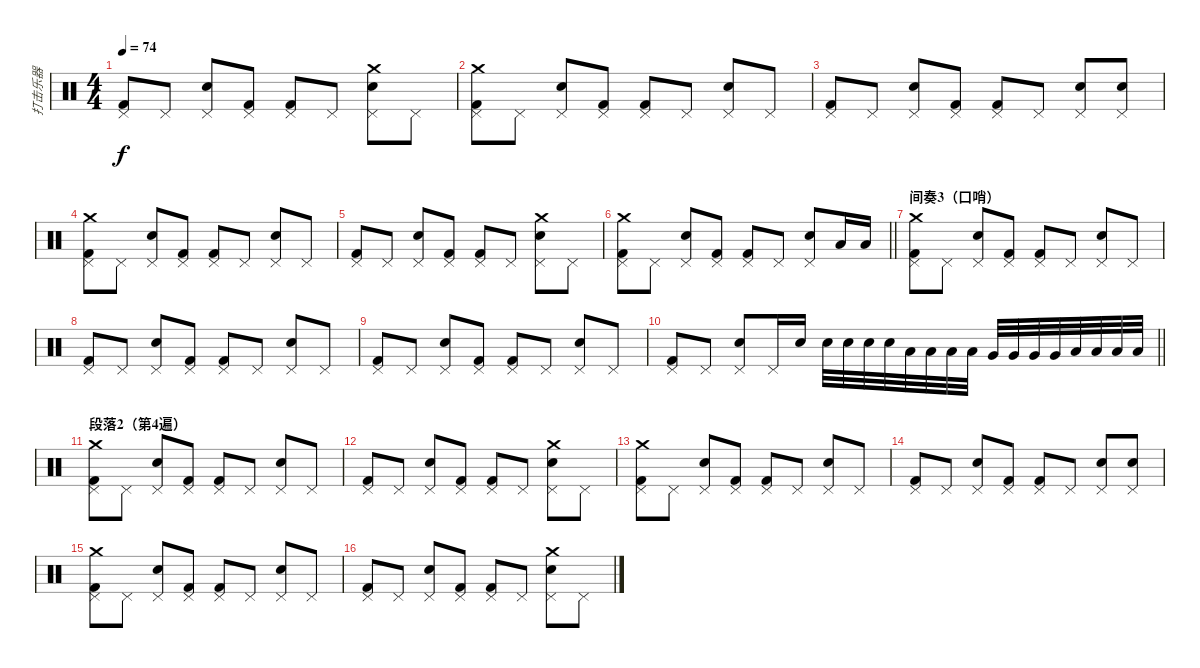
\track ("打击乐器" "打击乐器") {instrument percussion}
\staff {score}
\articulation defaults
\ts (4 4)
\tempo 74
\clef neutral
\ks c
("Pedal Hi-Hat (hit)" "Kick (hit) 2").8{dy f} "Pedal Hi-Hat (hit)".8 ("Pedal Hi-Hat (hit)" "Electric Snare (hit)").8 ("Pedal Hi-Hat (hit)" "Kick (hit) 2").8 ("Pedal Hi-Hat (hit)" "Kick (hit) 2").8 "Pedal Hi-Hat (hit)".8 ("Pedal Hi-Hat (hit)" "Electric Snare (hit)" "Crash medium (hit)").8 "Pedal Hi-Hat (hit)".8 |
("Pedal Hi-Hat (hit)" "Kick (hit) 2" "Crash medium (hit)").8 "Pedal Hi-Hat (hit)".8 ("Pedal Hi-Hat (hit)" "Electric Snare (hit)").8 ("Pedal Hi-Hat (hit)" "Kick (hit) 2").8 ("Pedal Hi-Hat (hit)" "Kick (hit) 2").8 "Pedal Hi-Hat (hit)".8 ("Pedal Hi-Hat (hit)" "Electric Snare (hit)").8 "Pedal Hi-Hat (hit)".8 |
("Pedal Hi-Hat (hit)" "Kick (hit) 2").8 "Pedal Hi-Hat (hit)".8 ("Pedal Hi-Hat (hit)" "Electric Snare (hit)").8 ("Pedal Hi-Hat (hit)" "Kick (hit) 2").8 ("Pedal Hi-Hat (hit)" "Kick (hit) 2").8 "Pedal Hi-Hat (hit)".8 ("Pedal Hi-Hat (hit)" "Electric Snare (hit)").8 ("Pedal Hi-Hat (hit)" "Electric Snare (hit)").8 |
("Pedal Hi-Hat (hit)" "Kick (hit) 2" "Crash medium (hit)").8 "Pedal Hi-Hat (hit)".8 ("Pedal Hi-Hat (hit)" "Electric Snare (hit)").8 ("Pedal Hi-Hat (hit)" "Kick (hit) 2").8 ("Pedal Hi-Hat (hit)" "Kick (hit) 2").8 "Pedal Hi-Hat (hit)".8 ("Pedal Hi-Hat (hit)" "Electric Snare (hit)").8 "Pedal Hi-Hat (hit)".8 |
("Pedal Hi-Hat (hit)" "Kick (hit) 2").8 "Pedal Hi-Hat (hit)".8 ("Pedal Hi-Hat (hit)" "Electric Snare (hit)").8 ("Pedal Hi-Hat (hit)" "Kick (hit) 2").8 ("Pedal Hi-Hat (hit)" "Kick (hit) 2").8 "Pedal Hi-Hat (hit)".8 ("Pedal Hi-Hat (hit)" "Electric Snare (hit)" "Crash medium (hit)").8 "Pedal Hi-Hat (hit)".8 |
\barLineRight lightlight
("Pedal Hi-Hat (hit)" "Kick (hit) 2" "Crash medium (hit)").8 "Pedal Hi-Hat (hit)".8 ("Pedal Hi-Hat (hit)" "Electric Snare (hit)").8 ("Pedal Hi-Hat (hit)" "Kick (hit) 2").8 ("Pedal Hi-Hat (hit)" "Kick (hit) 2").8 "Pedal Hi-Hat (hit)".8 ("Pedal Hi-Hat (hit)" "Electric Snare (hit)").8 "Low Tom (hit)".16 "Low Tom (hit)".16 |
\section ("" "间奏3（口哨）")
("Pedal Hi-Hat (hit)" "Kick (hit) 2" "Crash medium (hit)").8 "Pedal Hi-Hat (hit)".8 ("Pedal Hi-Hat (hit)" "Electric Snare (hit)").8 ("Pedal Hi-Hat (hit)" "Kick (hit) 2").8 ("Pedal Hi-Hat (hit)" "Kick (hit) 2").8 "Pedal Hi-Hat (hit)".8 ("Pedal Hi-Hat (hit)" "Electric Snare (hit)").8 "Pedal Hi-Hat (hit)".8 |
("Pedal Hi-Hat (hit)" "Kick (hit) 2").8 "Pedal Hi-Hat (hit)".8 ("Pedal Hi-Hat (hit)" "Electric Snare (hit)").8 ("Pedal Hi-Hat (hit)" "Kick (hit) 2").8 ("Pedal Hi-Hat (hit)" "Kick (hit) 2").8 "Pedal Hi-Hat (hit)".8 ("Pedal Hi-Hat (hit)" "Electric Snare (hit)").8 "Pedal Hi-Hat (hit)".8 |
("Pedal Hi-Hat (hit)" "Kick (hit) 2").8 "Pedal Hi-Hat (hit)".8 ("Pedal Hi-Hat (hit)" "Electric Snare (hit)").8 ("Pedal Hi-Hat (hit)" "Kick (hit) 2").8 ("Pedal Hi-Hat (hit)" "Kick (hit) 2").8 "Pedal Hi-Hat (hit)".8 ("Pedal Hi-Hat (hit)" "Electric Snare (hit)").8 "Pedal Hi-Hat (hit)".8 |
\barLineRight lightlight
("Pedal Hi-Hat (hit)" "Kick (hit) 2").8 "Pedal Hi-Hat (hit)".8 ("Pedal Hi-Hat (hit)" "Electric Snare (hit)").8{balance 16} "Pedal Hi-Hat (hit)".16 "Electric Snare (hit)".16 "Electric Snare (hit)".32{balance 1} "Electric Snare (hit)".32 "Electric Snare (hit)".32 "Electric Snare (hit)".32 "Low Floor Tom (hit)".32 "Low Floor Tom (hit)".32 "Low Floor Tom (hit)".32 "Low Floor Tom (hit)".32 "Very Low Tom (hit)".32 "Very Low Tom (hit)".32 "Very Low Tom (hit)".32 "Very Low Tom (hit)".32 "Low Tom (hit)".32 "Low Tom (hit)".32 "Low Tom (hit)".32 "Low Tom (hit)".32 |
\section ("" "段落2（第4遍）")
("Pedal Hi-Hat (hit)" "Kick (hit) 2" "Crash medium (hit)").8{balance 8} "Pedal Hi-Hat (hit)".8 ("Pedal Hi-Hat (hit)" "Electric Snare (hit)").8 ("Pedal Hi-Hat (hit)" "Kick (hit) 2").8 ("Pedal Hi-Hat (hit)" "Kick (hit) 2").8 "Pedal Hi-Hat (hit)".8 ("Pedal Hi-Hat (hit)" "Electric Snare (hit)").8 "Pedal Hi-Hat (hit)".8 |
("Pedal Hi-Hat (hit)" "Kick (hit) 2").8 "Pedal Hi-Hat (hit)".8 ("Pedal Hi-Hat (hit)" "Electric Snare (hit)").8 ("Pedal Hi-Hat (hit)" "Kick (hit) 2").8 ("Pedal Hi-Hat (hit)" "Kick (hit) 2").8 "Pedal Hi-Hat (hit)".8 ("Pedal Hi-Hat (hit)" "Electric Snare (hit)" "Crash medium (hit)").8 "Pedal Hi-Hat (hit)".8 |
("Pedal Hi-Hat (hit)" "Kick (hit) 2" "Crash medium (hit)").8 "Pedal Hi-Hat (hit)".8 ("Pedal Hi-Hat (hit)" "Electric Snare (hit)").8 ("Pedal Hi-Hat (hit)" "Kick (hit) 2").8 ("Pedal Hi-Hat (hit)" "Kick (hit) 2").8 "Pedal Hi-Hat (hit)".8 ("Pedal Hi-Hat (hit)" "Electric Snare (hit)").8 "Pedal Hi-Hat (hit)".8 |
("Pedal Hi-Hat (hit)" "Kick (hit) 2").8 "Pedal Hi-Hat (hit)".8 ("Pedal Hi-Hat (hit)" "Electric Snare (hit)").8 ("Pedal Hi-Hat (hit)" "Kick (hit) 2").8 ("Pedal Hi-Hat (hit)" "Kick (hit) 2").8 "Pedal Hi-Hat (hit)".8 ("Pedal Hi-Hat (hit)" "Electric Snare (hit)").8 ("Pedal Hi-Hat (hit)" "Electric Snare (hit)").8 |
("Pedal Hi-Hat (hit)" "Kick (hit) 2" "Crash medium (hit)").8 "Pedal Hi-Hat (hit)".8 ("Pedal Hi-Hat (hit)" "Electric Snare (hit)").8 ("Pedal Hi-Hat (hit)" "Kick (hit) 2").8 ("Pedal Hi-Hat (hit)" "Kick (hit) 2").8 "Pedal Hi-Hat (hit)".8 ("Pedal Hi-Hat (hit)" "Electric Snare (hit)").8 "Pedal Hi-Hat (hit)".8 |
("Pedal Hi-Hat (hit)" "Kick (hit) 2").8 "Pedal Hi-Hat (hit)".8 ("Pedal Hi-Hat (hit)" "Electric Snare (hit)").8 ("Pedal Hi-Hat (hit)" "Kick (hit) 2").8 ("Pedal Hi-Hat (hit)" "Kick (hit) 2").8 "Pedal Hi-Hat (hit)".8 ("Pedal Hi-Hat (hit)" "Electric Snare (hit)" "Crash medium (hit)").8 "Pedal Hi-Hat (hit)".8
